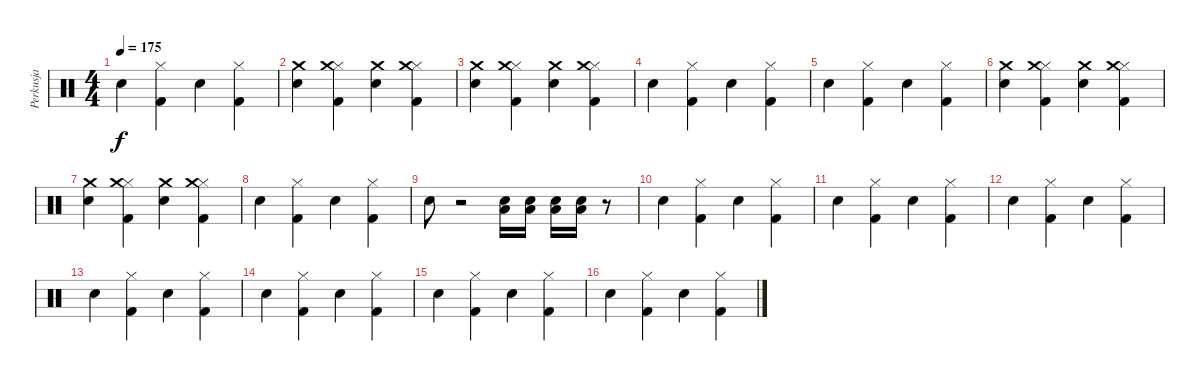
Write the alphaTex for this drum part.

\track ("Perkusja" "Perkusja") {instrument percussion}
\staff {score}
\articulation defaults
\ts (4 4)
\tempo 175
\clef neutral
\ks c "Snare (hit) 2".4{dy f}
("Kick (hit) 2" "Hi-Hat (closed)").4 "Snare (hit) 2".4 ("Kick (hit) 2" "Hi-Hat (closed)").4 |
("Snare (hit) 2" "Crash medium (hit)").4 ("Kick (hit) 2" "Hi-Hat (closed)" "Crash medium (hit)").4 ("Snare (hit) 2" "Crash medium (hit)").4 ("Kick (hit) 2" "Hi-Hat (closed)" "Crash medium (hit)").4 |
("Snare (hit) 2" "Crash medium (hit)").4 ("Kick (hit) 2" "Hi-Hat (closed)" "Crash medium (hit)").4 ("Snare (hit) 2" "Crash medium (hit)").4 ("Kick (hit) 2" "Hi-Hat (closed)" "Crash medium (hit)").4 |
"Snare (hit) 2".4 ("Kick (hit) 2" "Hi-Hat (closed)").4 "Snare (hit) 2".4 ("Kick (hit) 2" "Hi-Hat (closed)").4 |
"Snare (hit) 2".4 ("Kick (hit) 2" "Hi-Hat (closed)").4 "Snare (hit) 2".4 ("Kick (hit) 2" "Hi-Hat (closed)").4 |
("Snare (hit) 2" "Crash medium (hit)").4 ("Kick (hit) 2" "Hi-Hat (closed)" "Crash medium (hit)").4 ("Snare (hit) 2" "Crash medium (hit)").4 ("Kick (hit) 2" "Hi-Hat (closed)" "Crash medium (hit)").4 |
("Snare (hit) 2" "Crash medium (hit)").4 ("Kick (hit) 2" "Hi-Hat (closed)" "Crash medium (hit)").4 ("Snare (hit) 2" "Crash medium (hit)").4 ("Kick (hit) 2" "Hi-Hat (closed)" "Crash medium (hit)").4 |
"Snare (hit) 2".4 ("Kick (hit) 2" "Hi-Hat (closed)").4 "Snare (hit) 2".4 ("Kick (hit) 2" "Hi-Hat (closed)").4 |
"Snare (hit) 2".8 r.2 ("Snare (hit) 2" "Low Tom (hit)").16 ("Snare (hit) 2" "Low Tom (hit)").16 ("Snare (hit) 2" "Low Tom (hit)").16 ("Snare (hit) 2" "Low Tom (hit)").16 r.8 |
"Snare (hit) 2".4 ("Kick (hit) 2" "Hi-Hat (closed)").4 "Snare (hit) 2".4 ("Kick (hit) 2" "Hi-Hat (closed)").4 |
"Snare (hit) 2".4 ("Kick (hit) 2" "Hi-Hat (closed)").4 "Snare (hit) 2".4 ("Kick (hit) 2" "Hi-Hat (closed)").4 |
"Snare (hit) 2".4 ("Kick (hit) 2" "Hi-Hat (closed)").4 "Snare (hit) 2".4 ("Kick (hit) 2" "Hi-Hat (closed)").4 |
"Snare (hit) 2".4 ("Kick (hit) 2" "Hi-Hat (closed)").4 "Snare (hit) 2".4 ("Kick (hit) 2" "Hi-Hat (closed)").4 |
"Snare (hit) 2".4 ("Kick (hit) 2" "Hi-Hat (closed)").4 "Snare (hit) 2".4 ("Kick (hit) 2" "Hi-Hat (closed)").4 |
"Snare (hit) 2".4 ("Kick (hit) 2" "Hi-Hat (closed)").4 "Snare (hit) 2".4 ("Kick (hit) 2" "Hi-Hat (closed)").4 |
"Snare (hit) 2".4 ("Kick (hit) 2" "Hi-Hat (closed)").4 "Snare (hit) 2".4 ("Kick (hit) 2" "Hi-Hat (closed)").4
